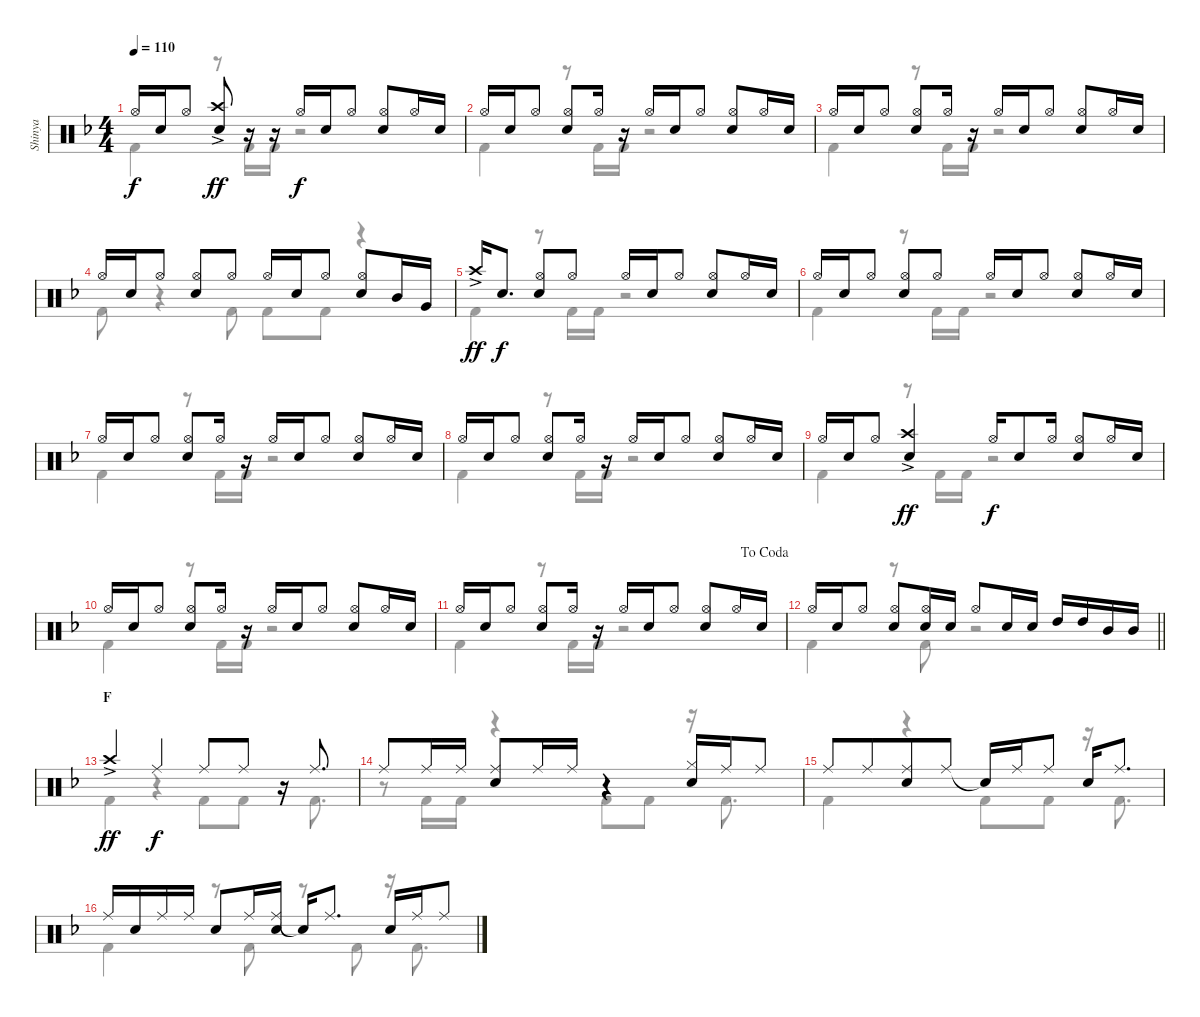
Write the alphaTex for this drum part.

\track ("Shinya" "Shinya") {instrument percussion}
\staff {score}
\articulation defaults
\voice
\ts (4 4)
\tempo 110
\clef neutral
\ks dminor "Hi-Hat (open)".16{dy f} "Snare (hit) 2".16 "Hi-Hat (open)".8
("Crash high (hit)"{ac} "Snare (hit) 2").8{dy ff} r.16 r.16 "Hi-Hat (open)".16{dy f} "Snare (hit) 2".16 "Hi-Hat (open)".8 ("Hi-Hat (open)" "Snare (hit) 2").8 "Hi-Hat (open)".16 "Snare (hit) 2".16 |
"Hi-Hat (open)".16 "Snare (hit) 2".16 "Hi-Hat (open)".8 ("Hi-Hat (open)" "Snare (hit) 2").8 "Hi-Hat (open)".16 r.16 "Hi-Hat (open)".16 "Snare (hit) 2".16 "Hi-Hat (open)".8 ("Hi-Hat (open)" "Snare (hit) 2").8 "Hi-Hat (open)".16 "Snare (hit) 2".16 |
"Hi-Hat (open)".16 "Snare (hit) 2".16 "Hi-Hat (open)".8 ("Hi-Hat (open)" "Snare (hit) 2").8 "Hi-Hat (open)".16 r.16 "Hi-Hat (open)".16 "Snare (hit) 2".16 "Hi-Hat (open)".8 ("Hi-Hat (open)" "Snare (hit) 2").8 "Hi-Hat (open)".16 "Snare (hit) 2".16 |
"Hi-Hat (open)".16 "Snare (hit) 2".16 "Hi-Hat (open)".8 ("Hi-Hat (open)" "Snare (hit) 2").8 "Hi-Hat (open)".8 "Hi-Hat (open)".16 "Snare (hit) 2".16 "Hi-Hat (open)".8 ("Hi-Hat (open)" "Snare (hit) 2").8 "Mid Tom (hit)".16 "Very Low Tom (hit)".16 |
"Crash high (hit)"{ac}.16{dy ff} "Snare (hit) 2".8{d dy f} ("Hi-Hat (open)" "Snare (hit) 2").8 "Hi-Hat (open)".8 "Hi-Hat (open)".16 "Snare (hit) 2".16 "Hi-Hat (open)".8 ("Hi-Hat (open)" "Snare (hit) 2").8 "Hi-Hat (open)".16 "Snare (hit) 2".16 |
"Hi-Hat (open)".16 "Snare (hit) 2".16 "Hi-Hat (open)".8 ("Hi-Hat (open)" "Snare (hit) 2").8 "Hi-Hat (open)".8 "Hi-Hat (open)".16 "Snare (hit) 2".16 "Hi-Hat (open)".8 ("Hi-Hat (open)" "Snare (hit) 2").8 "Hi-Hat (open)".16 "Snare (hit) 2".16 |
"Hi-Hat (open)".16 "Snare (hit) 2".16 "Hi-Hat (open)".8 ("Hi-Hat (open)" "Snare (hit) 2").8 "Hi-Hat (open)".16 r.16 "Hi-Hat (open)".16 "Snare (hit) 2".16 "Hi-Hat (open)".8 ("Hi-Hat (open)" "Snare (hit) 2").8 "Hi-Hat (open)".16 "Snare (hit) 2".16 |
"Hi-Hat (open)".16 "Snare (hit) 2".16 "Hi-Hat (open)".8 ("Hi-Hat (open)" "Snare (hit) 2").8 "Hi-Hat (open)".16 r.16 "Hi-Hat (open)".16 "Snare (hit) 2".16 "Hi-Hat (open)".8 ("Hi-Hat (open)" "Snare (hit) 2").8 "Hi-Hat (open)".16 "Snare (hit) 2".16 |
"Hi-Hat (open)".16 "Snare (hit) 2".16 "Hi-Hat (open)".8 ("Crash high (hit)"{ac} "Snare (hit) 2").4{dy ff} "Hi-Hat (open)".16{dy f} "Snare (hit) 2".8 "Hi-Hat (open)".16 ("Hi-Hat (open)" "Snare (hit) 2").8 "Hi-Hat (open)".16 "Snare (hit) 2".16 |
"Hi-Hat (open)".16 "Snare (hit) 2".16 "Hi-Hat (open)".8 ("Hi-Hat (open)" "Snare (hit) 2").8 "Hi-Hat (open)".16 r.16 "Hi-Hat (open)".16 "Snare (hit) 2".16 "Hi-Hat (open)".8 ("Hi-Hat (open)" "Snare (hit) 2").8 "Hi-Hat (open)".16 "Snare (hit) 2".16 |
\jump dacoda "Hi-Hat (open)".16 "Snare (hit) 2".16 "Hi-Hat (open)".8
("Hi-Hat (open)" "Snare (hit) 2").8 "Hi-Hat (open)".16 r.16 "Hi-Hat (open)".16 "Snare (hit) 2".16 "Hi-Hat (open)".8 ("Hi-Hat (open)" "Snare (hit) 2").8 "Hi-Hat (open)".16 "Snare (hit) 2".16 |
\barLineRight lightlight "Hi-Hat (open)".16 "Snare (hit) 2".16 "Hi-Hat (open)".8
("Hi-Hat (open)" "Snare (hit) 2").8 ("Hi-Hat (open)" "Snare (hit) 2").16 "Snare (hit) 2".16 "Hi-Hat (open)".8 "Snare (hit) 2".16 "Snare (hit) 2".16 "High Tom (hit)".16 "High Tom (hit)".16 "Mid Tom (hit)".16 "Mid Tom (hit)".16 |
\section ("" "F")
"Crash high (hit)"{ac}.4{dy ff} "Ride (middle)".4{dy f} "Ride (middle)".8 "Ride (middle)".8 r.16 "Ride (middle)".8{d} |
"Ride (middle)".8 "Ride (middle)".16 "Ride (middle)".16 ("Ride (middle)" "Snare (hit) 2").8 "Ride (middle)".16 "Ride (middle)".16 r.4 ("Hi-Hat (closed)" "Snare (hit) 2").16 "Ride (middle)".16 "Ride (middle)".8 |
"Ride (middle)".8 "Ride (middle)".8{beam merge} ("Ride (middle)" "Snare (hit) 2").8 "Ride (middle)".8 "Snare (hit)"{t}.16 "Ride (middle)".16 "Ride (middle)".8 "Snare (hit) 2".16 "Ride (middle)".8{d} |
"Ride (middle)".16 "Snare (hit) 2".16 "Ride (middle)".16 "Ride (middle)".16 "Snare (hit) 2".8 "Ride (middle)".16 ("Ride (middle)" "Snare (hit) 2").16 "Snare (hit)"{t}.16 "Ride (middle)".8{d} "Snare (hit) 2".16 "Ride (middle)".16 "Ride (middle)".8
\voice
\clef neutral
\ottava regular
\simile none
\ks dminor "Kick (hit) 2".4{dy f}
r.8 "Kick (hit) 2".16 "Kick (hit) 2".16 r.2 |
"Kick (hit) 2".4 r.8 "Kick (hit) 2".16 "Kick (hit) 2".16 r.2 |
"Kick (hit) 2".4 r.8 "Kick (hit) 2".16 "Kick (hit) 2".16 r.2 |
"Kick (hit) 2".8 r.4 "Kick (hit) 2".8 "Kick (hit) 2".8 "Kick (hit) 2".8 r.4 |
"Kick (hit) 2".4 r.8 "Kick (hit) 2".16 "Kick (hit) 2".16 r.2 |
"Kick (hit) 2".4 r.8 "Kick (hit) 2".16 "Kick (hit) 2".16 r.2 |
"Kick (hit) 2".4 r.8 "Kick (hit) 2".16 "Kick (hit) 2".16 r.2 |
"Kick (hit) 2".4 r.8 "Kick (hit) 2".16 "Kick (hit) 2".16 r.2 |
"Kick (hit) 2".4 r.8 "Kick (hit) 2".16 "Kick (hit) 2".16 r.2 |
"Kick (hit) 2".4 r.8 "Kick (hit) 2".16 "Kick (hit) 2".16 r.2 |
"Kick (hit) 2".4 r.8 "Kick (hit) 2".16 "Kick (hit) 2".16 r.2 |
\barLineRight lightlight "Kick (hit) 2".4
r.8 "Kick (hit) 2".8 r.2 |
"Kick (hit) 2".4 r.4 "Kick (hit) 2".8 "Kick (hit) 2".8 r.16 "Kick (hit) 2".8{d} |
r.8 "Kick (hit) 2".16 "Kick (hit) 2".16 r.4 "Kick (hit) 2".8 "Kick (hit) 2".8 r.16 "Kick (hit) 2".8{d} |
"Kick (hit) 2".4 r.4 "Kick (hit) 2".8 "Kick (hit) 2".8 r.16 "Kick (hit) 2".8{d} |
"Kick (hit) 2".4 r.8 "Kick (hit) 2".8 r.8 "Kick (hit) 2".8 r.16 "Kick (hit) 2".8{d}
